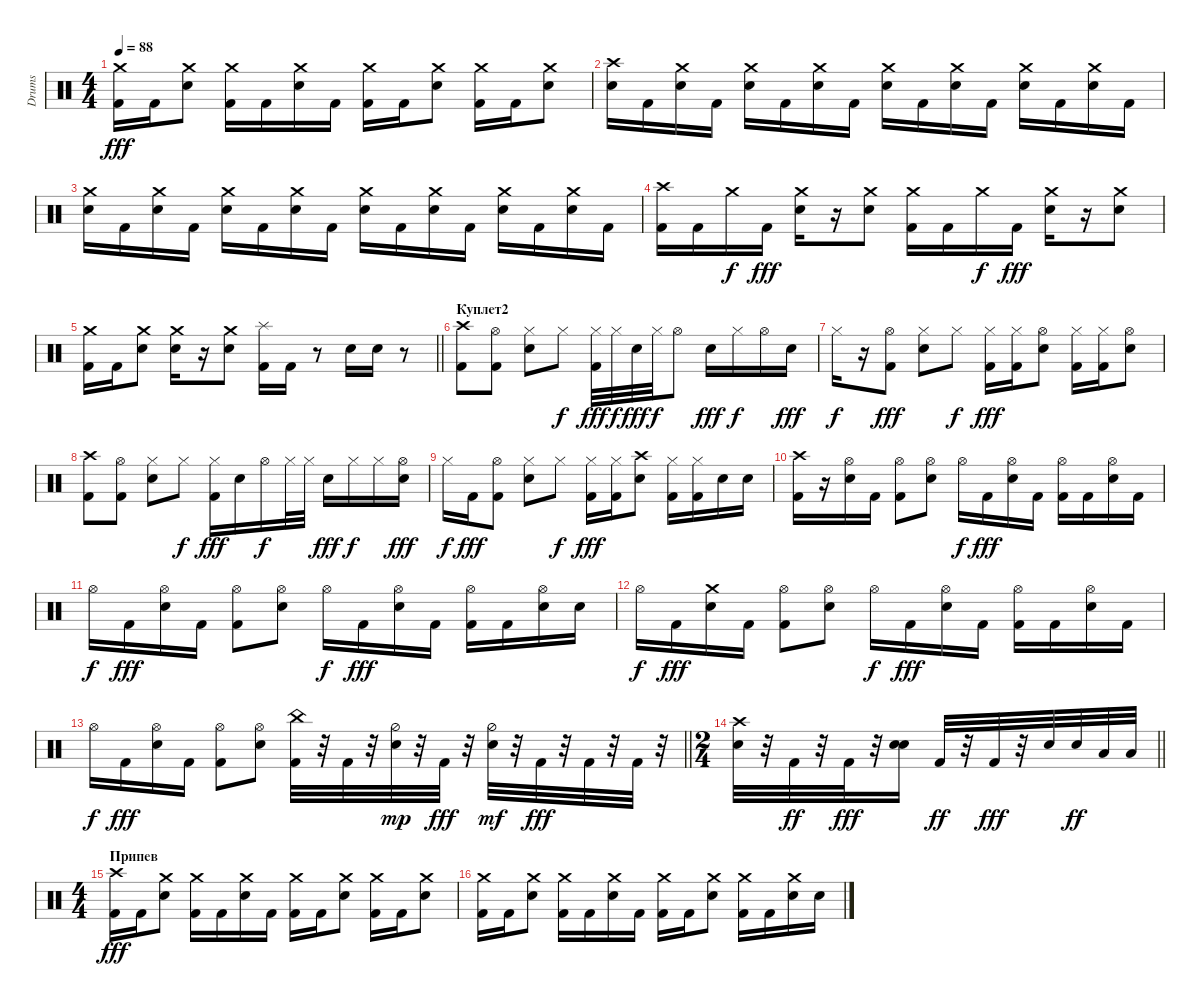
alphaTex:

\track ("Drums" "Drums") {instrument percussion}
\staff {score}
\articulation defaults
\ts (4 4)
\tempo 88
\clef neutral
\ks c
("Kick (hit) 2" "Crash medium (hit)").16{dy fff} "Kick (hit) 2".16 ("Electric Snare (hit)" "Crash medium (hit)").8 ("Kick (hit) 2" "Crash medium (hit)").16 "Kick (hit) 2".16 ("Electric Snare (hit)" "Crash medium (hit)").16 "Kick (hit) 2".16 ("Kick (hit) 2" "Crash medium (hit)").16 "Kick (hit) 2".16 ("Electric Snare (hit)" "Crash medium (hit)").8 ("Kick (hit) 2" "Crash medium (hit)").16 "Kick (hit) 2".16 ("Electric Snare (hit)" "Crash medium (hit)").8 |
("Electric Snare (hit)" "Crash high (hit)").16 "Kick (hit) 2".16 ("Electric Snare (hit)" "Crash medium (hit)").16 "Kick (hit) 2".16 ("Electric Snare (hit)" "Crash medium (hit)").16 "Kick (hit) 2".16 ("Electric Snare (hit)" "Crash medium (hit)").16 "Kick (hit) 2".16 ("Electric Snare (hit)" "Crash medium (hit)").16 "Kick (hit) 2".16 ("Electric Snare (hit)" "Crash medium (hit)").16 "Kick (hit) 2".16 ("Electric Snare (hit)" "Crash medium (hit)").16 "Kick (hit) 2".16 ("Electric Snare (hit)" "Crash medium (hit)").16 "Kick (hit) 2".16 |
("Electric Snare (hit)" "Crash medium (hit)").16 "Kick (hit) 2".16 ("Electric Snare (hit)" "Crash medium (hit)").16 "Kick (hit) 2".16 ("Electric Snare (hit)" "Crash medium (hit)").16 "Kick (hit) 2".16 ("Electric Snare (hit)" "Crash medium (hit)").16 "Kick (hit) 2".16 ("Electric Snare (hit)" "Crash medium (hit)").16 "Kick (hit) 2".16 ("Electric Snare (hit)" "Crash medium (hit)").16 "Kick (hit) 2".16 ("Electric Snare (hit)" "Crash medium (hit)").16 "Kick (hit) 2".16 ("Electric Snare (hit)" "Crash medium (hit)").16 "Kick (hit) 2".16 |
("Kick (hit) 2" "Crash high (hit)").16 "Kick (hit) 2".16 "Crash medium (hit)".16{dy f} "Kick (hit) 2".16{dy fff} ("Electric Snare (hit)" "Crash medium (hit)").16 r.16 ("Electric Snare (hit)" "Crash medium (hit)").8 ("Kick (hit) 2" "Crash medium (hit)").16 "Kick (hit) 2".16 "Crash medium (hit)".16{dy f} "Kick (hit) 2".16{dy fff} ("Electric Snare (hit)" "Crash medium (hit)").16 r.16 ("Electric Snare (hit)" "Crash medium (hit)").8 |
\barLineRight lightlight
("Kick (hit) 2" "Crash medium (hit)").16 "Kick (hit) 2".16 ("Electric Snare (hit)" "Crash medium (hit)").8 ("Electric Snare (hit)" "Crash medium (hit)").16 r.16 ("Electric Snare (hit)" "Crash medium (hit)").8 ("Kick (hit) 2" "Splash (hit)").16 "Kick (hit) 2".16 r.8 "Electric Snare (hit)".16 "Electric Snare (hit)".16 r.8 |
\section ("" "Куплет2")
("Kick (hit) 2" "Crash high (hit)").8 ("Kick (hit) 2" "Hi-Hat (open)").8 ("Electric Snare (hit)" "Hi-Hat (closed)").8 "Hi-Hat (closed)".8{dy f} ("Kick (hit) 2" "Hi-Hat (closed)").32{dy fff} "Hi-Hat (closed)".32{dy f} "Electric Snare (hit)".32{dy fff} "Hi-Hat (closed)".32{dy f} "Hi-Hat (open)".8 "Electric Snare (hit)".16{dy fff} "Hi-Hat (closed)".16{dy f} "Hi-Hat (open)".16 "Electric Snare (hit)".16{dy fff} |
"Hi-Hat (closed)".16{dy f} r.16 ("Kick (hit) 2" "Hi-Hat (open)").8{dy fff} ("Electric Snare (hit)" "Hi-Hat (closed)").8 "Hi-Hat (closed)".8{dy f} ("Kick (hit) 2" "Hi-Hat (closed)").16{dy fff} ("Kick (hit) 2" "Hi-Hat (closed)").16 ("Electric Snare (hit)" "Hi-Hat (open)").8 ("Kick (hit) 2" "Hi-Hat (closed)").16 ("Kick (hit) 2" "Hi-Hat (closed)").16 ("Electric Snare (hit)" "Hi-Hat (open)").8 |
("Kick (hit) 2" "Crash high (hit)").8 ("Kick (hit) 2" "Hi-Hat (open)").8 ("Electric Snare (hit)" "Hi-Hat (closed)").8 "Hi-Hat (closed)".8{dy f} ("Kick (hit) 2" "Hi-Hat (closed)").16{dy fff} "Electric Snare (hit)".16 "Hi-Hat (open)".16{dy f} "Hi-Hat (closed)".32 "Hi-Hat (closed)".32 "Electric Snare (hit)".16{dy fff} "Hi-Hat (closed)".16{dy f} "Hi-Hat (closed)".16 ("Electric Snare (hit)" "Hi-Hat (open)").16{dy fff} |
"Hi-Hat (closed)".16{dy f} "Kick (hit) 2".16{dy fff} ("Kick (hit) 2" "Hi-Hat (open)").8 ("Electric Snare (hit)" "Hi-Hat (closed)").8 "Hi-Hat (closed)".8{dy f} ("Kick (hit) 2" "Hi-Hat (closed)").16{dy fff} ("Kick (hit) 2" "Hi-Hat (closed)").16 ("Electric Snare (hit)" "Crash high (hit)").8 ("Kick (hit) 2" "Hi-Hat (closed)").16 ("Kick (hit) 2" "Hi-Hat (closed)").16 "Electric Snare (hit)".16 "Electric Snare (hit)".16 |
("Kick (hit) 2" "Crash high (hit)").16 r.16 ("Electric Snare (hit)" "Hi-Hat (open)").16 "Kick (hit) 2".16 ("Kick (hit) 2" "Hi-Hat (open)").8 ("Electric Snare (hit)" "Hi-Hat (open)").8 "Hi-Hat (open)".16{dy f} "Kick (hit) 2".16{dy fff} ("Electric Snare (hit)" "Hi-Hat (open)").16 "Kick (hit) 2".16 ("Kick (hit) 2" "Hi-Hat (open)").16 "Kick (hit) 2".16 ("Electric Snare (hit)" "Hi-Hat (open)").16 "Kick (hit) 2".16 |
"Hi-Hat (open)".16{dy f} "Kick (hit) 2".16{dy fff} ("Electric Snare (hit)" "Hi-Hat (open)").16 "Kick (hit) 2".16 ("Kick (hit) 2" "Hi-Hat (open)").8 ("Electric Snare (hit)" "Hi-Hat (open)").8 "Hi-Hat (open)".16{dy f} "Kick (hit) 2".16{dy fff} ("Electric Snare (hit)" "Hi-Hat (open)").16 "Kick (hit) 2".16 ("Kick (hit) 2" "Hi-Hat (open)").16 "Kick (hit) 2".16 ("Electric Snare (hit)" "Hi-Hat (open)").16 "Electric Snare (hit)".16 |
"Hi-Hat (open)".16{dy f} "Kick (hit) 2".16{dy fff} ("Electric Snare (hit)" "Crash medium (hit)").16 "Kick (hit) 2".16 ("Kick (hit) 2" "Hi-Hat (open)").8 ("Electric Snare (hit)" "Hi-Hat (open)").8 "Hi-Hat (open)".16{dy f} "Kick (hit) 2".16{dy fff} ("Electric Snare (hit)" "Hi-Hat (open)").16 "Kick (hit) 2".16 ("Kick (hit) 2" "Hi-Hat (open)").16 "Kick (hit) 2".16 ("Electric Snare (hit)" "Hi-Hat (open)").16 "Kick (hit) 2".16 |
\barLineRight lightlight "Hi-Hat (open)".16{dy f} "Kick (hit) 2".16{dy fff}
("Electric Snare (hit)" "Hi-Hat (open)").16 "Kick (hit) 2".16 ("Kick (hit) 2" "Hi-Hat (open)").8 ("Electric Snare (hit)" "Hi-Hat (open)").8 ("Kick (hit) 2" "China (hit)").32 r.32 "Kick (hit) 2".32 r.32 ("Snare (hit) 2" "Hi-Hat (half)").32{dy mp} r.32 "Kick (hit) 2".32{dy fff} r.32 ("Snare (hit) 2" "Hi-Hat (half)").32{dy mf} r.32 "Kick (hit) 2".32{dy fff} r.32 "Kick (hit) 2".32 r.32 "Kick (hit) 2".32 r.32 |
\ts (2 4)
\section ("" "")
\barLineRight lightlight
("Snare (hit) 2" "Crash high (hit)").32 r.32 "Kick (hit) 2".32{dy ff} r.32 "Kick (hit) 2".32{dy fff} r.32 ("Snare (hit) 2" "Electric Snare (hit)").16 "Kick (hit) 2".32{dy ff} r.32 "Kick (hit) 2".32{dy fff} r.32 "Snare (hit) 2".32 "Snare (hit) 2".32{dy ff} "Low Floor Tom (hit)".32 "Low Floor Tom (hit)".32 |
\ts (4 4)
\section ("" "Припев")
("Kick (hit) 2" "Crash high (hit)").16{dy fff} "Kick (hit) 2".16 ("Electric Snare (hit)" "Crash medium (hit)").8 ("Kick (hit) 2" "Crash medium (hit)").16 "Kick (hit) 2".16 ("Electric Snare (hit)" "Crash medium (hit)").16 "Kick (hit) 2".16 ("Kick (hit) 2" "Crash medium (hit)").16 "Kick (hit) 2".16 ("Electric Snare (hit)" "Crash medium (hit)").8 ("Kick (hit) 2" "Crash medium (hit)").16 "Kick (hit) 2".16 ("Electric Snare (hit)" "Crash medium (hit)").8 |
("Kick (hit) 2" "Crash medium (hit)").16 "Kick (hit) 2".16 ("Electric Snare (hit)" "Crash medium (hit)").8 ("Kick (hit) 2" "Crash medium (hit)").16 "Kick (hit) 2".16 ("Electric Snare (hit)" "Crash medium (hit)").16 "Kick (hit) 2".16 ("Kick (hit) 2" "Crash medium (hit)").16 "Kick (hit) 2".16 ("Electric Snare (hit)" "Crash medium (hit)").8 ("Kick (hit) 2" "Crash medium (hit)").16 "Kick (hit) 2".16 ("Electric Snare (hit)" "Crash medium (hit)").16 "Electric Snare (hit)".16
